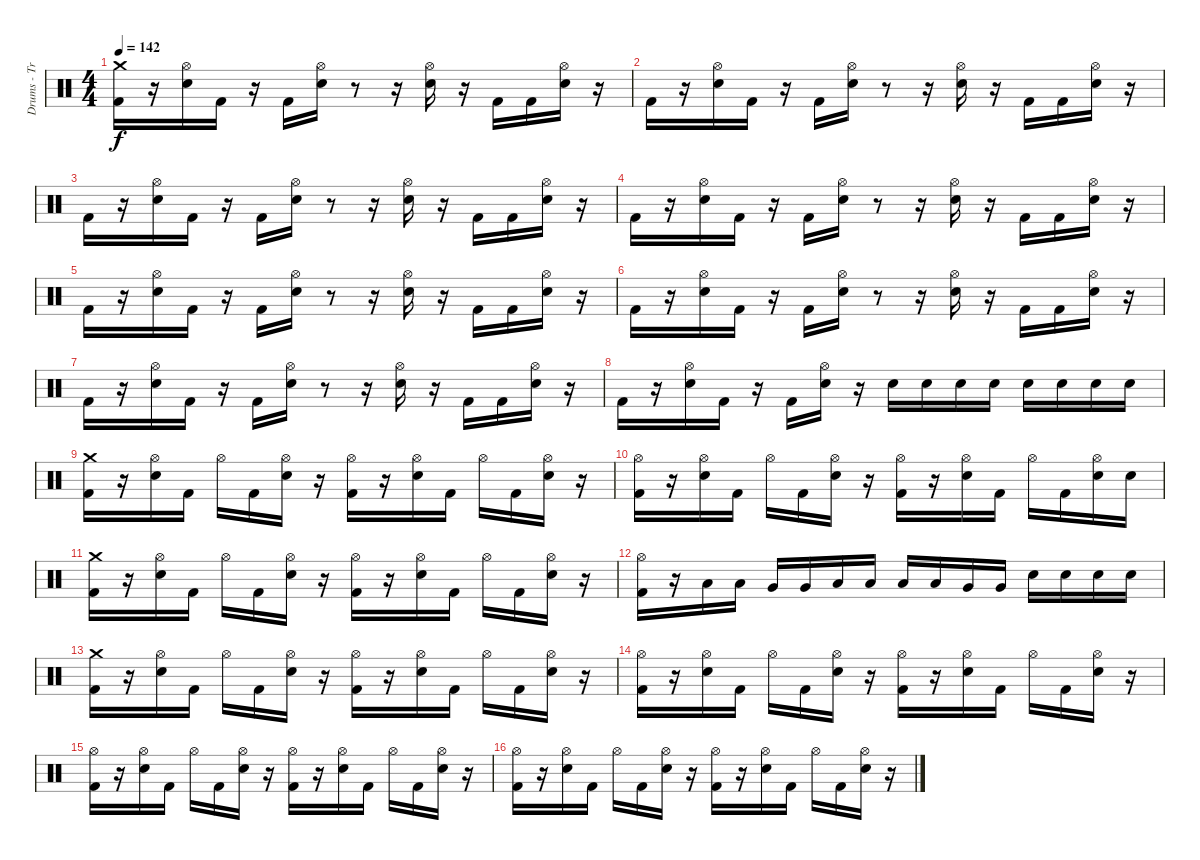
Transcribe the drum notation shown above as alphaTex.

\track ("Drums - Travis" "Drums - Tr") {instrument percussion}
\staff {score}
\articulation defaults
\ts (4 4)
\tempo 142
\clef neutral
\ks c
("Kick (hit) 2" "Crash medium (hit)").16{dy f} r.16 ("Electric Snare (hit)" "Hi-Hat (open)").16 "Kick (hit) 2".16 r.16 "Kick (hit) 2".16 ("Electric Snare (hit)" "Hi-Hat (open)").16 r.8 r.16 ("Electric Snare (hit)" "Hi-Hat (open)").16 r.16 "Kick (hit) 2".16 "Kick (hit) 2".16 ("Electric Snare (hit)" "Hi-Hat (open)").16 r.16 |
"Kick (hit) 2".16 r.16 ("Electric Snare (hit)" "Hi-Hat (open)").16 "Kick (hit) 2".16 r.16 "Kick (hit) 2".16 ("Electric Snare (hit)" "Hi-Hat (open)").16 r.8 r.16 ("Electric Snare (hit)" "Hi-Hat (open)").16 r.16 "Kick (hit) 2".16 "Kick (hit) 2".16 ("Electric Snare (hit)" "Hi-Hat (open)").16 r.16 |
"Kick (hit) 2".16 r.16 ("Electric Snare (hit)" "Hi-Hat (open)").16 "Kick (hit) 2".16 r.16 "Kick (hit) 2".16 ("Electric Snare (hit)" "Hi-Hat (open)").16 r.8 r.16 ("Electric Snare (hit)" "Hi-Hat (open)").16 r.16 "Kick (hit) 2".16 "Kick (hit) 2".16 ("Electric Snare (hit)" "Hi-Hat (open)").16 r.16 |
"Kick (hit) 2".16 r.16 ("Electric Snare (hit)" "Hi-Hat (open)").16 "Kick (hit) 2".16 r.16 "Kick (hit) 2".16 ("Electric Snare (hit)" "Hi-Hat (open)").16 r.8 r.16 ("Electric Snare (hit)" "Hi-Hat (open)").16 r.16 "Kick (hit) 2".16 "Kick (hit) 2".16 ("Electric Snare (hit)" "Hi-Hat (open)").16 r.16 |
"Kick (hit) 2".16 r.16 ("Electric Snare (hit)" "Hi-Hat (open)").16 "Kick (hit) 2".16 r.16 "Kick (hit) 2".16 ("Electric Snare (hit)" "Hi-Hat (open)").16 r.8 r.16 ("Electric Snare (hit)" "Hi-Hat (open)").16 r.16 "Kick (hit) 2".16 "Kick (hit) 2".16 ("Electric Snare (hit)" "Hi-Hat (open)").16 r.16 |
"Kick (hit) 2".16 r.16 ("Electric Snare (hit)" "Hi-Hat (open)").16 "Kick (hit) 2".16 r.16 "Kick (hit) 2".16 ("Electric Snare (hit)" "Hi-Hat (open)").16 r.8 r.16 ("Electric Snare (hit)" "Hi-Hat (open)").16 r.16 "Kick (hit) 2".16 "Kick (hit) 2".16 ("Electric Snare (hit)" "Hi-Hat (open)").16 r.16 |
"Kick (hit) 2".16 r.16 ("Electric Snare (hit)" "Hi-Hat (open)").16 "Kick (hit) 2".16 r.16 "Kick (hit) 2".16 ("Electric Snare (hit)" "Hi-Hat (open)").16 r.8 r.16 ("Electric Snare (hit)" "Hi-Hat (open)").16 r.16 "Kick (hit) 2".16 "Kick (hit) 2".16 ("Electric Snare (hit)" "Hi-Hat (open)").16 r.16 |
"Kick (hit) 2".16 r.16 ("Electric Snare (hit)" "Hi-Hat (open)").16 "Kick (hit) 2".16 r.16 "Kick (hit) 2".16 ("Electric Snare (hit)" "Hi-Hat (open)").16 r.16 "Electric Snare (hit)".16 "Electric Snare (hit)".16 "Electric Snare (hit)".16 "Electric Snare (hit)".16 "Electric Snare (hit)".16 "Electric Snare (hit)".16 "Electric Snare (hit)".16 "Electric Snare (hit)".16 |
("Kick (hit) 2" "Crash medium (hit)").16 r.16 ("Electric Snare (hit)" "Hi-Hat (open)").16 "Kick (hit) 2".16 "Hi-Hat (open)".16 "Kick (hit) 2".16 ("Electric Snare (hit)" "Hi-Hat (open)").16 r.16 ("Kick (hit) 2" "Hi-Hat (open)").16 r.16 ("Electric Snare (hit)" "Hi-Hat (open)").16 "Kick (hit) 2".16 "Hi-Hat (open)".16 "Kick (hit) 2".16 ("Electric Snare (hit)" "Hi-Hat (open)").16 r.16 |
("Kick (hit) 2" "Hi-Hat (open)").16 r.16 ("Electric Snare (hit)" "Hi-Hat (open)").16 "Kick (hit) 2".16 "Hi-Hat (open)".16 "Kick (hit) 2".16 ("Electric Snare (hit)" "Hi-Hat (open)").16 r.16 ("Kick (hit) 2" "Hi-Hat (open)").16 r.16 ("Electric Snare (hit)" "Hi-Hat (open)").16 "Kick (hit) 2".16 "Hi-Hat (open)".16 "Kick (hit) 2".16 ("Electric Snare (hit)" "Hi-Hat (open)").16 "Electric Snare (hit)".16 |
("Kick (hit) 2" "Crash medium (hit)").16 r.16 ("Electric Snare (hit)" "Hi-Hat (open)").16 "Kick (hit) 2".16 "Hi-Hat (open)".16 "Kick (hit) 2".16 ("Electric Snare (hit)" "Hi-Hat (open)").16 r.16 ("Kick (hit) 2" "Hi-Hat (open)").16 r.16 ("Electric Snare (hit)" "Hi-Hat (open)").16 "Kick (hit) 2".16 "Hi-Hat (open)".16 "Kick (hit) 2".16 ("Electric Snare (hit)" "Hi-Hat (open)").16 r.16 |
("Kick (hit) 2" "Hi-Hat (open)").16 r.16 "Low Tom (hit)".16 "Low Tom (hit)".16 "Very Low Tom (hit)".16 "Very Low Tom (hit)".16 "Low Floor Tom (hit)".16 "Low Floor Tom (hit)".16 "Low Tom (hit)".16 "Low Tom (hit)".16 "Very Low Tom (hit)".16 "Very Low Tom (hit)".16 "Electric Snare (hit)".16 "Electric Snare (hit)".16 "Electric Snare (hit)".16 "Electric Snare (hit)".16 |
("Kick (hit) 2" "Crash medium (hit)").16 r.16 ("Electric Snare (hit)" "Hi-Hat (open)").16 "Kick (hit) 2".16 "Hi-Hat (open)".16 "Kick (hit) 2".16 ("Electric Snare (hit)" "Hi-Hat (open)").16 r.16 ("Kick (hit) 2" "Hi-Hat (open)").16 r.16 ("Electric Snare (hit)" "Hi-Hat (open)").16 "Kick (hit) 2".16 "Hi-Hat (open)".16 "Kick (hit) 2".16 ("Electric Snare (hit)" "Hi-Hat (open)").16 r.16 |
("Kick (hit) 2" "Hi-Hat (open)").16 r.16 ("Electric Snare (hit)" "Hi-Hat (open)").16 "Kick (hit) 2".16 "Hi-Hat (open)".16 "Kick (hit) 2".16 ("Electric Snare (hit)" "Hi-Hat (open)").16 r.16 ("Kick (hit) 2" "Hi-Hat (open)").16 r.16 ("Electric Snare (hit)" "Hi-Hat (open)").16 "Kick (hit) 2".16 "Hi-Hat (open)".16 "Kick (hit) 2".16 ("Electric Snare (hit)" "Hi-Hat (open)").16 r.16 |
("Kick (hit) 2" "Hi-Hat (open)").16 r.16 ("Electric Snare (hit)" "Hi-Hat (open)").16 "Kick (hit) 2".16 "Hi-Hat (open)".16 "Kick (hit) 2".16 ("Electric Snare (hit)" "Hi-Hat (open)").16 r.16 ("Kick (hit) 2" "Hi-Hat (open)").16 r.16 ("Electric Snare (hit)" "Hi-Hat (open)").16 "Kick (hit) 2".16 "Hi-Hat (open)".16 "Kick (hit) 2".16 ("Electric Snare (hit)" "Hi-Hat (open)").16 r.16 |
("Kick (hit) 2" "Hi-Hat (open)").16 r.16 ("Electric Snare (hit)" "Hi-Hat (open)").16 "Kick (hit) 2".16 "Hi-Hat (open)".16 "Kick (hit) 2".16 ("Electric Snare (hit)" "Hi-Hat (open)").16 r.16 ("Hi-Hat (open)" "Kick (hit) 2").16 r.16 ("Electric Snare (hit)" "Hi-Hat (open)").16 "Kick (hit) 2".16 "Hi-Hat (open)".16 "Kick (hit) 2".16 ("Electric Snare (hit)" "Hi-Hat (open)").16 r.16
